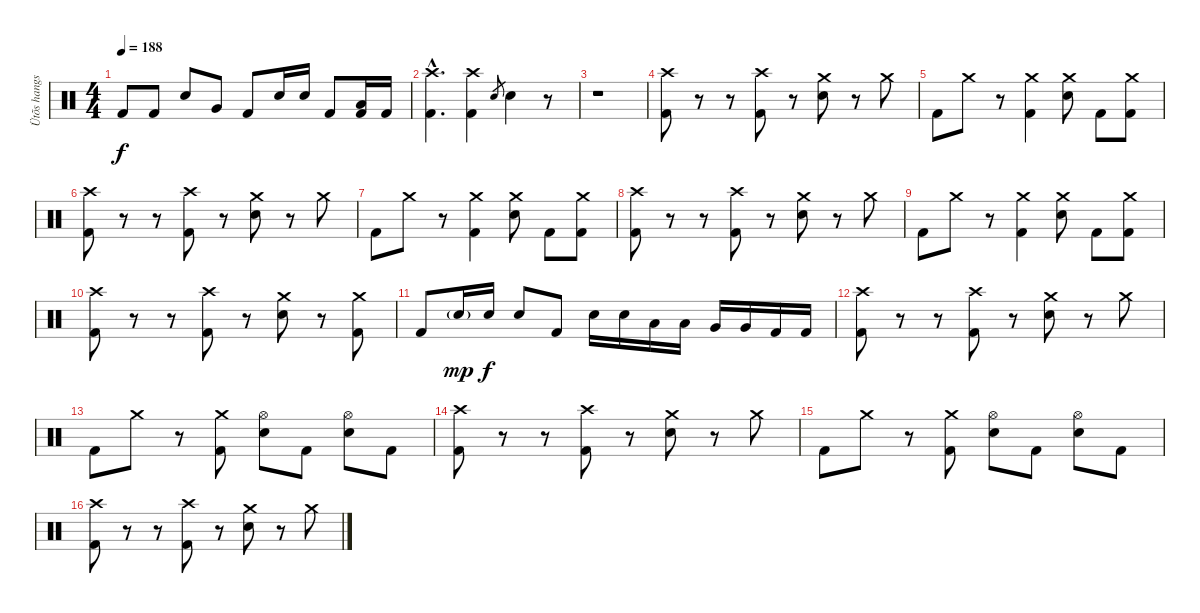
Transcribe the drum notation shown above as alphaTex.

\track ("Ütõs hangszer" "Ütõs hangs") {instrument percussion}
\staff {score}
\articulation defaults
\ts (4 4)
\tempo 188
\clef neutral
\ks c "Kick (hit) 2".8{dy f} "Kick (hit) 2".8 "Electric Snare (hit)".8 "Very Low Tom (hit)".8 "Kick (hit) 2".8 "Electric Snare (hit)".16 "Electric Snare (hit)".16 "Kick (hit) 2".8
("Low Tom (hit)" "Kick (hit) 2").16 "Kick (hit) 2".16 |
("Crash high (hit)"{hac} "Kick (hit) 2"{hac}).4{d} ("Crash high (hit)" "Kick (hit) 2").4 "Electric Snare (hit)".8{gr} "Electric Snare (hit)".4 r.8 |
r.1 |
("Crash high (hit)" "Kick (hit) 2").8 r.8 r.8 ("Crash high (hit)" "Kick (hit) 2").8 r.8 ("Crash medium (hit)" "Electric Snare (hit)").8 r.8 "Crash medium (hit)".8 |
"Kick (hit) 2".8 "Crash medium (hit)".8 r.8 ("Crash medium (hit)" "Kick (hit) 2").4 ("Crash medium (hit)" "Electric Snare (hit)").8 "Kick (hit) 2".8 ("Crash medium (hit)" "Kick (hit) 2").8 |
("Crash high (hit)" "Kick (hit) 2").8 r.8 r.8 ("Crash high (hit)" "Kick (hit) 2").8 r.8 ("Crash medium (hit)" "Electric Snare (hit)").8 r.8 "Crash medium (hit)".8 |
"Kick (hit) 2".8 "Crash medium (hit)".8 r.8 ("Crash medium (hit)" "Kick (hit) 2").4 ("Crash medium (hit)" "Electric Snare (hit)").8 "Kick (hit) 2".8 ("Crash medium (hit)" "Kick (hit) 2").8 |
("Crash high (hit)" "Kick (hit) 2").8 r.8 r.8 ("Crash high (hit)" "Kick (hit) 2").8 r.8 ("Crash medium (hit)" "Electric Snare (hit)").8 r.8 "Crash medium (hit)".8 |
"Kick (hit) 2".8 "Crash medium (hit)".8 r.8 ("Crash medium (hit)" "Kick (hit) 2").4 ("Crash medium (hit)" "Electric Snare (hit)").8 "Kick (hit) 2".8 ("Crash medium (hit)" "Kick (hit) 2").8 |
("Crash high (hit)" "Kick (hit) 2").8 r.8 r.8 ("Crash high (hit)" "Kick (hit) 2").8 r.8 ("Crash medium (hit)" "Electric Snare (hit)").8 r.8 ("Crash medium (hit)" "Kick (hit) 2").8 |
"Kick (hit) 2".8 "Electric Snare (hit)"{g}.16{dy mp} "Electric Snare (hit)".16{dy f} "Electric Snare (hit)".8 "Kick (hit) 2".8 "Electric Snare (hit)".16 "Electric Snare (hit)".16 "Low Tom (hit)".16 "Low Tom (hit)".16 "Very Low Tom (hit)".16 "Very Low Tom (hit)".16 "Kick (hit) 2".16 "Kick (hit) 2".16 |
("Crash high (hit)" "Kick (hit) 2").8 r.8 r.8 ("Crash high (hit)" "Kick (hit) 2").8 r.8 ("Crash medium (hit)" "Electric Snare (hit)").8 r.8 "Crash medium (hit)".8 |
"Kick (hit) 2".8 "Crash medium (hit)".8 r.8 ("Crash medium (hit)" "Kick (hit) 2").8 ("Hi-Hat (open)" "Electric Snare (hit)").8 "Kick (hit) 2".8 ("Hi-Hat (open)" "Electric Snare (hit)").8 "Kick (hit) 2".8 |
("Crash high (hit)" "Kick (hit) 2").8 r.8 r.8 ("Crash high (hit)" "Kick (hit) 2").8 r.8 ("Crash medium (hit)" "Electric Snare (hit)").8 r.8 "Crash medium (hit)".8 |
"Kick (hit) 2".8 "Crash medium (hit)".8 r.8 ("Crash medium (hit)" "Kick (hit) 2").8 ("Hi-Hat (open)" "Electric Snare (hit)").8 "Kick (hit) 2".8 ("Hi-Hat (open)" "Electric Snare (hit)").8 "Kick (hit) 2".8 |
("Crash high (hit)" "Kick (hit) 2").8 r.8 r.8 ("Crash high (hit)" "Kick (hit) 2").8 r.8 ("Crash medium (hit)" "Electric Snare (hit)").8 r.8 "Crash medium (hit)".8
